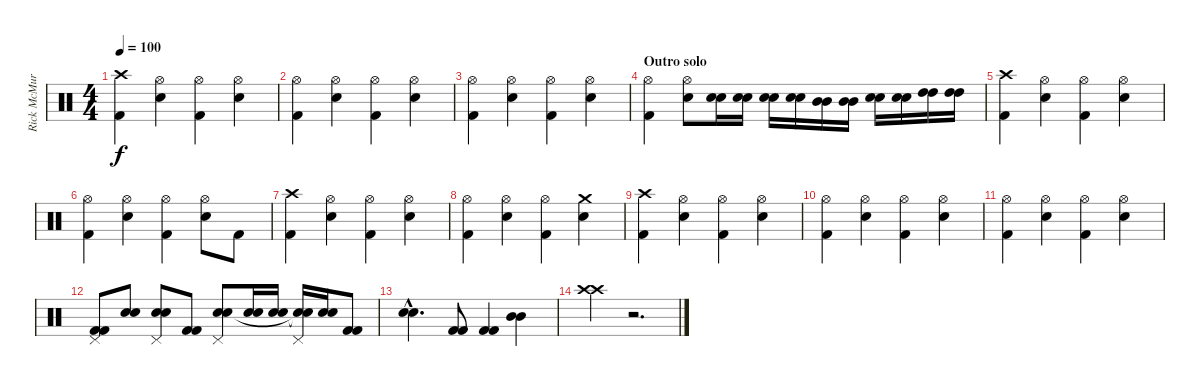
\track ("Rick McMurray" "Rick McMur") {instrument percussion}
\staff {score}
\articulation defaults
\ts (4 4)
\tempo 100
\clef neutral
\ks c
("Crash high (hit)" "Kick (hit) 2").4{dy f} ("Hi-Hat (open)" "Snare (hit) 2").4 ("Hi-Hat (open)" "Kick (hit) 2").4 ("Hi-Hat (open)" "Snare (hit) 2").4 |
("Hi-Hat (open)" "Kick (hit) 2").4 ("Hi-Hat (open)" "Snare (hit) 2").4 ("Hi-Hat (open)" "Kick (hit) 2").4 ("Hi-Hat (open)" "Snare (hit) 2").4 |
("Hi-Hat (open)" "Kick (hit) 2").4 ("Hi-Hat (open)" "Snare (hit) 2").4 ("Hi-Hat (open)" "Kick (hit) 2").4 ("Hi-Hat (open)" "Snare (hit) 2").4 |
\section ("" "Outro solo")
("Hi-Hat (open)" "Kick (hit) 2").4 ("Hi-Hat (open)" "Snare (hit) 2").8 ("Snare (hit) 2" "Snare (hit) 2").16 ("Snare (hit) 2" "Snare (hit) 2").16 ("Snare (hit) 2" "Snare (hit) 2").16 ("Snare (hit) 2" "Snare (hit) 2").16 ("Mid Tom (hit)" "Mid Tom (hit)").16 ("Mid Tom (hit)" "Mid Tom (hit)").16 ("Snare (hit) 2" "Snare (hit) 2").16 ("Snare (hit) 2" "Snare (hit) 2").16 ("High Tom (hit)" "High Tom (hit)").16 ("High Tom (hit)" "High Tom (hit)").16 |
("Crash high (hit)" "Kick (hit) 2").4 ("Hi-Hat (open)" "Snare (hit) 2").4 ("Hi-Hat (open)" "Kick (hit) 2").4 ("Hi-Hat (open)" "Snare (hit) 2").4 |
("Hi-Hat (open)" "Kick (hit) 2").4 ("Hi-Hat (open)" "Snare (hit) 2").4 ("Hi-Hat (open)" "Kick (hit) 2").4 ("Hi-Hat (open)" "Snare (hit) 2").8 "Kick (hit) 2".8 |
("Crash high (hit)" "Kick (hit) 2").4 ("Hi-Hat (open)" "Snare (hit) 2").4 ("Hi-Hat (open)" "Kick (hit) 2").4 ("Hi-Hat (open)" "Snare (hit) 2").4 |
("Hi-Hat (open)" "Kick (hit) 2").4 ("Hi-Hat (open)" "Snare (hit) 2").4 ("Hi-Hat (open)" "Kick (hit) 2").4 ("Crash medium (hit)" "Snare (hit) 2").4 |
("Crash high (hit)" "Kick (hit) 2").4 ("Hi-Hat (open)" "Snare (hit) 2").4 ("Hi-Hat (open)" "Kick (hit) 2").4 ("Hi-Hat (open)" "Snare (hit) 2").4 |
("Hi-Hat (open)" "Kick (hit) 2").4 ("Hi-Hat (open)" "Snare (hit) 2").4 ("Hi-Hat (open)" "Kick (hit) 2").4 ("Hi-Hat (open)" "Snare (hit) 2").4 |
("Hi-Hat (open)" "Kick (hit) 2").4 ("Hi-Hat (open)" "Snare (hit) 2").4 ("Hi-Hat (open)" "Kick (hit) 2").4 ("Hi-Hat (open)" "Snare (hit) 2").4 |
("Pedal Hi-Hat (hit)" "Kick (hit) 2" "Kick (hit) 2").8 ("Snare (hit) 2" "Snare (hit) 2").8 ("Pedal Hi-Hat (hit)" "Snare (hit) 2" "Snare (hit) 2").8 ("Kick (hit) 2" "Kick (hit) 2").8 ("Pedal Hi-Hat (hit)" "Snare (hit) 2" "Snare (hit) 2").8 ("Snare (hit) 2" "Snare (hit) 2").16 ("Snare (hit) 2" "Snare (hit) 2").16 ("Pedal Hi-Hat (hit)" "Snare (hit) 2"{t} "Snare (hit)"{t}).16 ("Snare (hit) 2" "Snare (hit) 2").16 ("Kick (hit) 2" "Kick (hit) 2").8 |
("Snare (hit) 2"{hac} "Snare (hit) 2"{hac}).4{d} ("Kick (hit) 2" "Kick (hit) 2").8 ("Kick (hit) 2" "Kick (hit) 2").4 ("Mid Tom (hit)" "Mid Tom (hit)").4 |
("Crash high (hit)" "Crash high (hit)").4 r.2{d}
